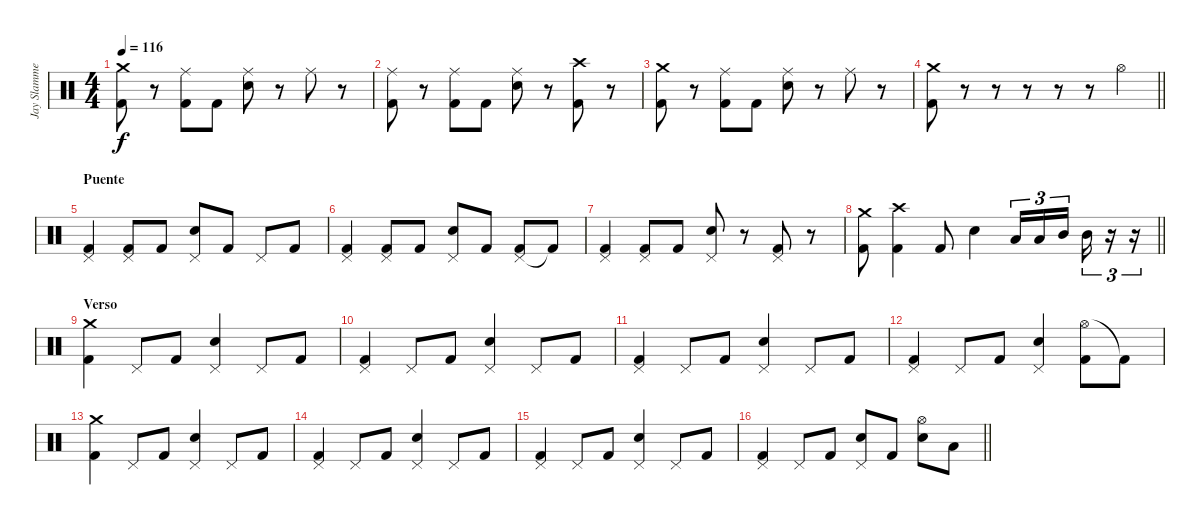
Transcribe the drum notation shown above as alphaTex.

\track ("Jay Slammer " "Jay Slamme") {instrument percussion}
\staff {score}
\articulation defaults
\ts (4 4)
\tempo 116
\clef neutral
\ks c
("Crash medium (hit)" "Kick (hit) 2").8{dy f} r.8 ("Ride (middle)" "Kick (hit) 2").8 "Kick (hit) 2".8 ("Ride (middle)" "Snare (hit) 2").8 r.8 "Ride (middle)".8 r.8 |
("Ride (middle)" "Kick (hit) 2").8 r.8 ("Ride (middle)" "Kick (hit) 2").8 "Kick (hit) 2".8 ("Ride (middle)" "Snare (hit) 2").8 r.8 ("Crash high (hit)" "Kick (hit) 2").8 r.8 |
("Crash medium (hit)" "Kick (hit) 2").8 r.8 ("Ride (middle)" "Kick (hit) 2").8 "Kick (hit) 2".8 ("Ride (middle)" "Snare (hit) 2").8 r.8 "Ride (middle)".8 r.8 |
\barLineRight lightlight
("Crash medium (hit)" "Kick (hit) 2").8 r.8 r.8 r.8 r.8 r.8 "Hi-Hat (open)".4 |
\section ("" "Puente")
("Pedal Hi-Hat (hit)" "Kick (hit) 2").4 ("Pedal Hi-Hat (hit)" "Kick (hit) 2").8 "Kick (hit) 2".8 ("Pedal Hi-Hat (hit)" "Snare (hit) 2").8 "Kick (hit) 2".8 "Pedal Hi-Hat (hit)".8 "Kick (hit) 2".8 |
("Pedal Hi-Hat (hit)" "Kick (hit) 2").4 ("Pedal Hi-Hat (hit)" "Kick (hit) 2").8 "Kick (hit) 2".8 ("Pedal Hi-Hat (hit)" "Snare (hit) 2").8 "Kick (hit) 2".8 ("Pedal Hi-Hat (hit)" "Kick (hit) 2").8 "Kick (hit) 2"{t}.8 |
("Pedal Hi-Hat (hit)" "Kick (hit) 2").4 ("Pedal Hi-Hat (hit)" "Kick (hit) 2").8 "Kick (hit) 2".8 ("Pedal Hi-Hat (hit)" "Snare (hit) 2").8 r.8 ("Pedal Hi-Hat (hit)" "Kick (hit) 2").8 r.8 |
\barLineRight lightlight
("Crash medium (hit)" "Kick (hit) 2").8 ("Crash high (hit)" "Kick (hit) 2").4 "Kick (hit) 2".8 "Snare (hit) 2".4 "Low Tom (hit)".16{tu (3 2)} "Low Tom (hit)".16{tu (3 2)} "Mid Tom (hit)".16{tu (3 2) beam splitsecondary} "Mid Tom (hit)".16{tu (3 2)} r.16{tu (3 2)} r.16{tu (3 2)} |
\section ("" "Verso")
("Crash medium (hit)" "Kick (hit) 2").4 "Pedal Hi-Hat (hit)".8 "Kick (hit) 2".8 ("Pedal Hi-Hat (hit)" "Snare (hit) 2").4 "Pedal Hi-Hat (hit)".8 "Kick (hit) 2".8 |
("Pedal Hi-Hat (hit)" "Kick (hit) 2").4 "Pedal Hi-Hat (hit)".8 "Kick (hit) 2".8 ("Pedal Hi-Hat (hit)" "Snare (hit) 2").4 "Pedal Hi-Hat (hit)".8 "Kick (hit) 2".8 |
("Pedal Hi-Hat (hit)" "Kick (hit) 2").4 "Pedal Hi-Hat (hit)".8 "Kick (hit) 2".8 ("Pedal Hi-Hat (hit)" "Snare (hit) 2").4 "Pedal Hi-Hat (hit)".8 "Kick (hit) 2".8 |
("Pedal Hi-Hat (hit)" "Kick (hit) 2").4 "Pedal Hi-Hat (hit)".8 "Kick (hit) 2".8 ("Pedal Hi-Hat (hit)" "Snare (hit) 2").4 ("Hi-Hat (open)" "Kick (hit) 2").8 "Kick (hit) 2"{t}.8 |
("Crash medium (hit)" "Kick (hit) 2").4 "Pedal Hi-Hat (hit)".8 "Kick (hit) 2".8 ("Pedal Hi-Hat (hit)" "Snare (hit) 2").4 "Pedal Hi-Hat (hit)".8 "Kick (hit) 2".8 |
("Pedal Hi-Hat (hit)" "Kick (hit) 2").4 "Pedal Hi-Hat (hit)".8 "Kick (hit) 2".8 ("Pedal Hi-Hat (hit)" "Snare (hit) 2").4 "Pedal Hi-Hat (hit)".8 "Kick (hit) 2".8 |
("Pedal Hi-Hat (hit)" "Kick (hit) 2").4 "Pedal Hi-Hat (hit)".8 "Kick (hit) 2".8 ("Pedal Hi-Hat (hit)" "Snare (hit) 2").4 "Pedal Hi-Hat (hit)".8 "Kick (hit) 2".8 |
\barLineRight lightlight
("Pedal Hi-Hat (hit)" "Kick (hit) 2").4 "Pedal Hi-Hat (hit)".8 "Kick (hit) 2".8 ("Pedal Hi-Hat (hit)" "Snare (hit) 2").8 "Kick (hit) 2".8 ("Hi-Hat (open)" "Snare (hit) 2").8 "Low Tom (hit)".8
